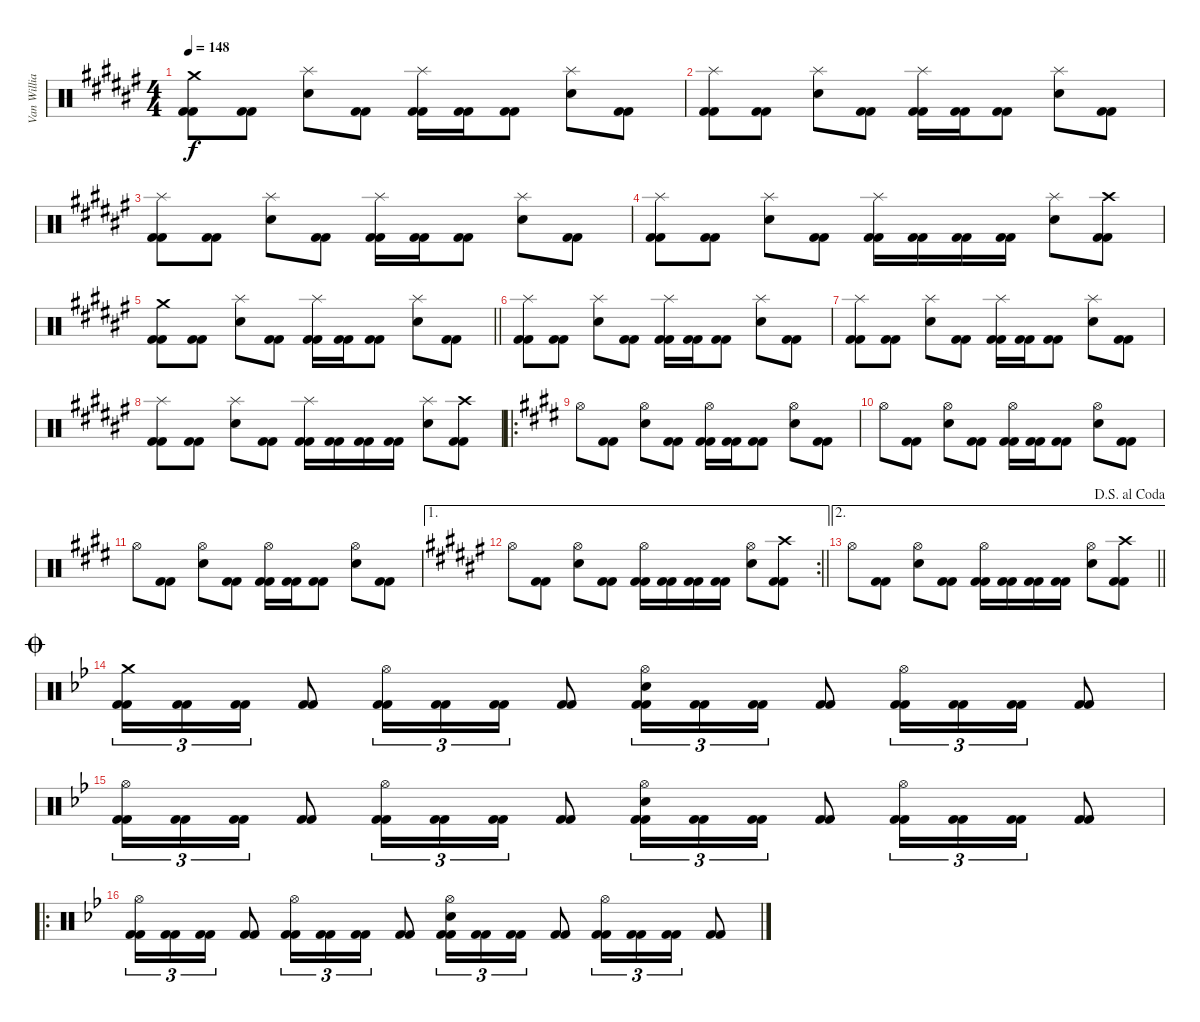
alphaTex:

\track ("Van Williams" "Van Willia") {instrument percussion}
\staff {score}
\articulation defaults
\ts (4 4)
\tempo 148
\clef neutral
\ks f#
("Crash medium (hit)" "Kick (hit) 2" "Kick (hit) 2").8{dy f} ("Kick (hit) 2" "Kick (hit) 2").8 ("Splash (hit)" "Electric Snare (hit)").8 ("Kick (hit) 2" "Kick (hit) 2").8 ("Splash (hit)" "Kick (hit) 2" "Kick (hit) 2").16 ("Kick (hit) 2" "Kick (hit) 2").16 ("Kick (hit) 2" "Kick (hit) 2").8 ("Splash (hit)" "Electric Snare (hit)").8 ("Kick (hit) 2" "Kick (hit) 2").8 |
("Splash (hit)" "Kick (hit) 2" "Kick (hit) 2").8 ("Kick (hit) 2" "Kick (hit) 2").8 ("Splash (hit)" "Electric Snare (hit)").8 ("Kick (hit) 2" "Kick (hit) 2").8 ("Splash (hit)" "Kick (hit) 2" "Kick (hit) 2").16 ("Kick (hit) 2" "Kick (hit) 2").16 ("Kick (hit) 2" "Kick (hit) 2").8 ("Splash (hit)" "Electric Snare (hit)").8 ("Kick (hit) 2" "Kick (hit) 2").8 |
("Splash (hit)" "Kick (hit) 2" "Kick (hit) 2").8 ("Kick (hit) 2" "Kick (hit) 2").8 ("Splash (hit)" "Electric Snare (hit)").8 ("Kick (hit) 2" "Kick (hit) 2").8 ("Splash (hit)" "Kick (hit) 2" "Kick (hit) 2").16 ("Kick (hit) 2" "Kick (hit) 2").16 ("Kick (hit) 2" "Kick (hit) 2").8 ("Splash (hit)" "Electric Snare (hit)").8 ("Kick (hit) 2" "Kick (hit) 2").8 |
("Splash (hit)" "Kick (hit) 2" "Kick (hit) 2").8 ("Kick (hit) 2" "Kick (hit) 2").8 ("Splash (hit)" "Electric Snare (hit)").8 ("Kick (hit) 2" "Kick (hit) 2").8 ("Splash (hit)" "Kick (hit) 2" "Kick (hit) 2").16 ("Kick (hit) 2" "Kick (hit) 2").16 ("Kick (hit) 2" "Kick (hit) 2").16 ("Kick (hit) 2" "Kick (hit) 2").16 ("Splash (hit)" "Electric Snare (hit)").8 ("Crash high (hit)" "Kick (hit) 2" "Kick (hit) 2").8 |
\barLineRight lightlight
("Crash medium (hit)" "Kick (hit) 2" "Kick (hit) 2").8 ("Kick (hit) 2" "Kick (hit) 2").8 ("Splash (hit)" "Electric Snare (hit)").8 ("Kick (hit) 2" "Kick (hit) 2").8 ("Splash (hit)" "Kick (hit) 2" "Kick (hit) 2").16 ("Kick (hit) 2" "Kick (hit) 2").16 ("Kick (hit) 2" "Kick (hit) 2").8 ("Splash (hit)" "Electric Snare (hit)").8 ("Kick (hit) 2" "Kick (hit) 2").8 |
("Splash (hit)" "Kick (hit) 2" "Kick (hit) 2").8 ("Kick (hit) 2" "Kick (hit) 2").8 ("Splash (hit)" "Electric Snare (hit)").8 ("Kick (hit) 2" "Kick (hit) 2").8 ("Splash (hit)" "Kick (hit) 2" "Kick (hit) 2").16 ("Kick (hit) 2" "Kick (hit) 2").16 ("Kick (hit) 2" "Kick (hit) 2").8 ("Splash (hit)" "Electric Snare (hit)").8 ("Kick (hit) 2" "Kick (hit) 2").8 |
("Splash (hit)" "Kick (hit) 2" "Kick (hit) 2").8 ("Kick (hit) 2" "Kick (hit) 2").8 ("Splash (hit)" "Electric Snare (hit)").8 ("Kick (hit) 2" "Kick (hit) 2").8 ("Splash (hit)" "Kick (hit) 2" "Kick (hit) 2").16 ("Kick (hit) 2" "Kick (hit) 2").16 ("Kick (hit) 2" "Kick (hit) 2").8 ("Splash (hit)" "Electric Snare (hit)").8 ("Kick (hit) 2" "Kick (hit) 2").8 |
("Splash (hit)" "Kick (hit) 2" "Kick (hit) 2").8 ("Kick (hit) 2" "Kick (hit) 2").8 ("Splash (hit)" "Electric Snare (hit)").8 ("Kick (hit) 2" "Kick (hit) 2").8 ("Splash (hit)" "Kick (hit) 2" "Kick (hit) 2").16 ("Kick (hit) 2" "Kick (hit) 2").16 ("Kick (hit) 2" "Kick (hit) 2").16 ("Kick (hit) 2" "Kick (hit) 2").16 ("Splash (hit)" "Electric Snare (hit)").8 ("Crash high (hit)" "Kick (hit) 2" "Kick (hit) 2").8 |
\ro
\ks e "Hi-Hat (open)".8
("Kick (hit) 2" "Kick (hit) 2").8 ("Hi-Hat (open)" "Electric Snare (hit)").8 ("Kick (hit) 2" "Kick (hit) 2").8 ("Hi-Hat (open)" "Kick (hit) 2" "Kick (hit) 2").16 ("Kick (hit) 2" "Kick (hit) 2").16 ("Kick (hit) 2" "Kick (hit) 2").8 ("Hi-Hat (open)" "Electric Snare (hit)").8 ("Kick (hit) 2" "Kick (hit) 2").8 |
"Hi-Hat (open)".8 ("Kick (hit) 2" "Kick (hit) 2").8 ("Hi-Hat (open)" "Electric Snare (hit)").8 ("Kick (hit) 2" "Kick (hit) 2").8 ("Hi-Hat (open)" "Kick (hit) 2" "Kick (hit) 2").16 ("Kick (hit) 2" "Kick (hit) 2").16 ("Kick (hit) 2" "Kick (hit) 2").8 ("Hi-Hat (open)" "Electric Snare (hit)").8 ("Kick (hit) 2" "Kick (hit) 2").8 |
"Hi-Hat (open)".8 ("Kick (hit) 2" "Kick (hit) 2").8 ("Hi-Hat (open)" "Electric Snare (hit)").8 ("Kick (hit) 2" "Kick (hit) 2").8 ("Hi-Hat (open)" "Kick (hit) 2" "Kick (hit) 2").16 ("Kick (hit) 2" "Kick (hit) 2").16 ("Kick (hit) 2" "Kick (hit) 2").8 ("Hi-Hat (open)" "Electric Snare (hit)").8 ("Kick (hit) 2" "Kick (hit) 2").8 |
\ae 1
\rc 2
\barLineRight lightlight
\ks f# "Hi-Hat (open)".8
("Kick (hit) 2" "Kick (hit) 2").8 ("Hi-Hat (open)" "Electric Snare (hit)").8 ("Kick (hit) 2" "Kick (hit) 2").8 ("Hi-Hat (open)" "Kick (hit) 2" "Kick (hit) 2").16 ("Kick (hit) 2" "Kick (hit) 2").16 ("Kick (hit) 2" "Kick (hit) 2").16 ("Kick (hit) 2" "Kick (hit) 2").16 ("Hi-Hat (open)" "Electric Snare (hit)").8 ("Crash high (hit)" "Kick (hit) 2" "Kick (hit) 2").8 |
\ae 2
\jump dalsegnoalcoda
\barLineRight lightlight "Hi-Hat (open)".8
("Kick (hit) 2" "Kick (hit) 2").8 ("Hi-Hat (open)" "Electric Snare (hit)").8 ("Kick (hit) 2" "Kick (hit) 2").8 ("Hi-Hat (open)" "Kick (hit) 2" "Kick (hit) 2").16 ("Kick (hit) 2" "Kick (hit) 2").16 ("Kick (hit) 2" "Kick (hit) 2").16 ("Kick (hit) 2" "Kick (hit) 2").16 ("Hi-Hat (open)" "Electric Snare (hit)").8 ("Crash high (hit)" "Kick (hit) 2" "Kick (hit) 2").8 |
\jump coda
\ks bb
("Crash medium (hit)" "Kick (hit) 2" "Kick (hit) 2").16{tu (3 2)} ("Kick (hit) 2" "Kick (hit) 2").16{tu (3 2)} ("Kick (hit) 2" "Kick (hit) 2").16{tu (3 2)} ("Kick (hit) 2" "Kick (hit) 2").8 ("Hi-Hat (open)" "Kick (hit) 2" "Kick (hit) 2").16{tu (3 2)} ("Kick (hit) 2" "Kick (hit) 2").16{tu (3 2)} ("Kick (hit) 2" "Kick (hit) 2").16{tu (3 2)} ("Kick (hit) 2" "Kick (hit) 2").8 ("Hi-Hat (open)" "Electric Snare (hit)" "Kick (hit) 2" "Kick (hit) 2").16{tu (3 2)} ("Kick (hit) 2" "Kick (hit) 2").16{tu (3 2)} ("Kick (hit) 2" "Kick (hit) 2").16{tu (3 2)} ("Kick (hit) 2" "Kick (hit) 2").8 ("Hi-Hat (open)" "Kick (hit) 2" "Kick (hit) 2").16{tu (3 2)} ("Kick (hit) 2" "Kick (hit) 2").16{tu (3 2)} ("Kick (hit) 2" "Kick (hit) 2").16{tu (3 2)} ("Kick (hit) 2" "Kick (hit) 2").8 |
("Hi-Hat (open)" "Kick (hit) 2" "Kick (hit) 2").16{tu (3 2)} ("Kick (hit) 2" "Kick (hit) 2").16{tu (3 2)} ("Kick (hit) 2" "Kick (hit) 2").16{tu (3 2)} ("Kick (hit) 2" "Kick (hit) 2").8 ("Hi-Hat (open)" "Kick (hit) 2" "Kick (hit) 2").16{tu (3 2)} ("Kick (hit) 2" "Kick (hit) 2").16{tu (3 2)} ("Kick (hit) 2" "Kick (hit) 2").16{tu (3 2)} ("Kick (hit) 2" "Kick (hit) 2").8 ("Hi-Hat (open)" "Electric Snare (hit)" "Kick (hit) 2" "Kick (hit) 2").16{tu (3 2)} ("Kick (hit) 2" "Kick (hit) 2").16{tu (3 2)} ("Kick (hit) 2" "Kick (hit) 2").16{tu (3 2)} ("Kick (hit) 2" "Kick (hit) 2").8 ("Hi-Hat (open)" "Kick (hit) 2" "Kick (hit) 2").16{tu (3 2)} ("Kick (hit) 2" "Kick (hit) 2").16{tu (3 2)} ("Kick (hit) 2" "Kick (hit) 2").16{tu (3 2)} ("Kick (hit) 2" "Kick (hit) 2").8 |
\ro
("Hi-Hat (open)" "Kick (hit) 2" "Kick (hit) 2").16{tu (3 2)} ("Kick (hit) 2" "Kick (hit) 2").16{tu (3 2)} ("Kick (hit) 2" "Kick (hit) 2").16{tu (3 2)} ("Kick (hit) 2" "Kick (hit) 2").8 ("Hi-Hat (open)" "Kick (hit) 2" "Kick (hit) 2").16{tu (3 2)} ("Kick (hit) 2" "Kick (hit) 2").16{tu (3 2)} ("Kick (hit) 2" "Kick (hit) 2").16{tu (3 2)} ("Kick (hit) 2" "Kick (hit) 2").8 ("Hi-Hat (open)" "Electric Snare (hit)" "Kick (hit) 2" "Kick (hit) 2").16{tu (3 2)} ("Kick (hit) 2" "Kick (hit) 2").16{tu (3 2)} ("Kick (hit) 2" "Kick (hit) 2").16{tu (3 2)} ("Kick (hit) 2" "Kick (hit) 2").8 ("Hi-Hat (open)" "Kick (hit) 2" "Kick (hit) 2").16{tu (3 2)} ("Kick (hit) 2" "Kick (hit) 2").16{tu (3 2)} ("Kick (hit) 2" "Kick (hit) 2").16{tu (3 2)} ("Kick (hit) 2" "Kick (hit) 2").8
